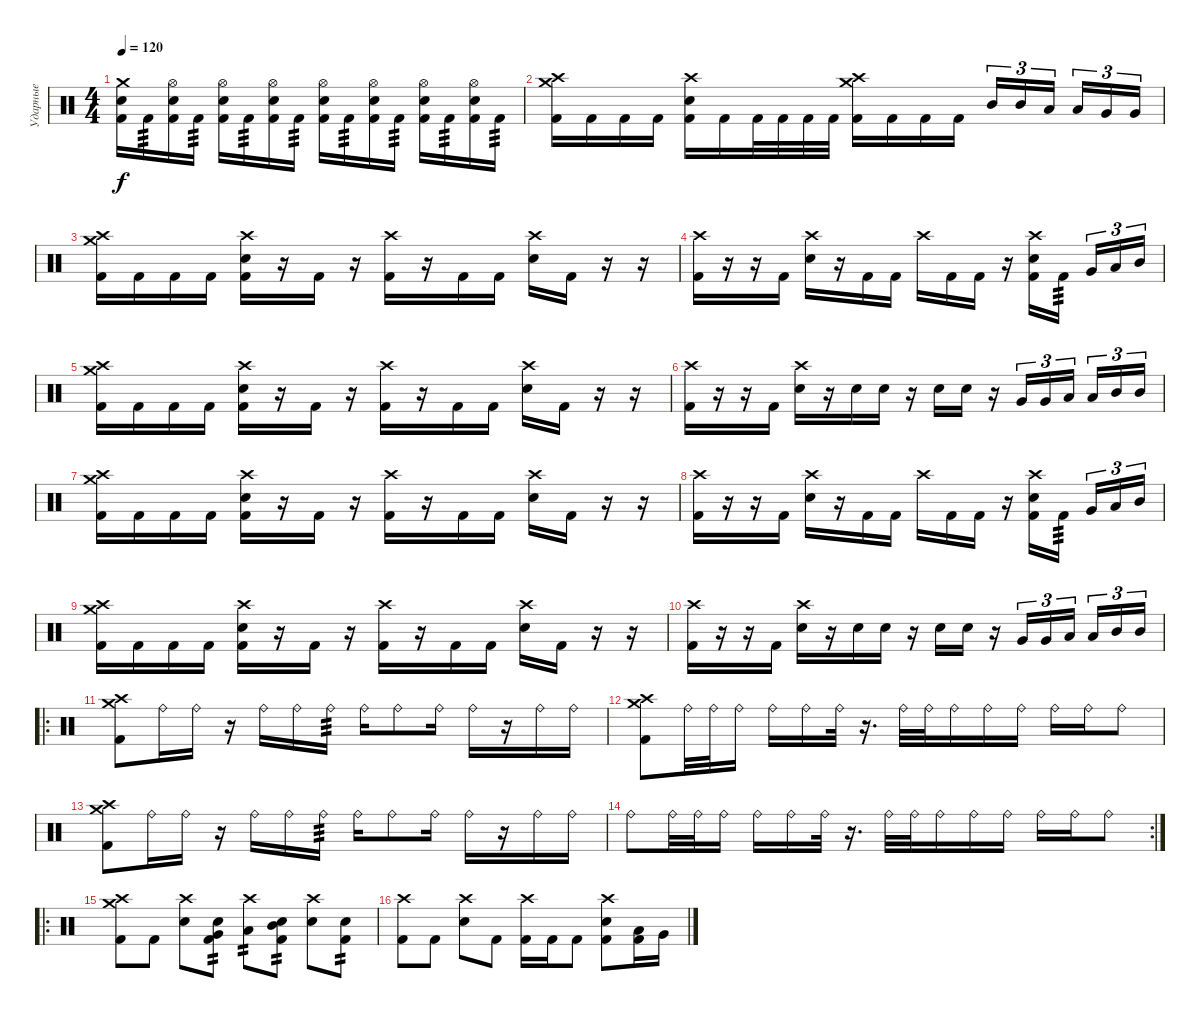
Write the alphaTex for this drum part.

\track ("Ударные" "Ударные") {instrument percussion}
\staff {score}
\articulation defaults
\ts (4 4)
\tempo 120
\clef neutral
\ks c
("Snare (hit) 2" "Crash medium (hit)" "Kick (hit) 2").16{dy f} "Kick (hit) 2".16{tp 3} ("Hi-Hat (open)" "Snare (hit) 2" "Kick (hit) 2").16 "Kick (hit) 2".16{tp 3} ("Hi-Hat (open)" "Snare (hit) 2" "Kick (hit) 2").16 "Kick (hit) 2".16{tp 3} ("Hi-Hat (open)" "Snare (hit) 2" "Kick (hit) 2").16 "Kick (hit) 2".16{tp 3} ("Hi-Hat (open)" "Snare (hit) 2" "Kick (hit) 2").16 "Kick (hit) 2".16{tp 3} ("Hi-Hat (open)" "Snare (hit) 2" "Kick (hit) 2").16 "Kick (hit) 2".16{tp 3} ("Hi-Hat (open)" "Snare (hit) 2" "Kick (hit) 2").16 "Kick (hit) 2".16{tp 3} ("Hi-Hat (open)" "Snare (hit) 2" "Kick (hit) 2").16 "Kick (hit) 2".16{tp 3} |
("Crash medium (hit)" "Crash high (hit)" "Kick (hit) 2").16 "Kick (hit) 2".16 "Kick (hit) 2".16 "Kick (hit) 2".16 ("Crash high (hit)" "Snare (hit) 2" "Kick (hit) 2").16 "Kick (hit) 2".16 "Kick (hit) 2".32 "Kick (hit) 2".32 "Kick (hit) 2".32 "Kick (hit) 2".32 ("Crash medium (hit)" "Crash high (hit)" "Kick (hit) 2").16 "Kick (hit) 2".16 "Kick (hit) 2".16 "Kick (hit) 2".16 "Mid Tom (hit)".16{tu (3 2)} "Mid Tom (hit)".16{tu (3 2)} "Low Tom (hit)".16{tu (3 2) beam splitsecondary} "Low Tom (hit)".16{tu (3 2)} "Very Low Tom (hit)".16{tu (3 2)} "Very Low Tom (hit)".16{tu (3 2)} |
("Crash medium (hit)" "Crash high (hit)" "Kick (hit) 2").16 "Kick (hit) 2".16 "Kick (hit) 2".16 "Kick (hit) 2".16 ("Snare (hit) 2" "Crash high (hit)" "Kick (hit) 2").16 r.16 "Kick (hit) 2".16 r.16 ("Crash high (hit)" "Kick (hit) 2").16 r.16 "Kick (hit) 2".16 "Kick (hit) 2".16 ("Snare (hit) 2" "Crash high (hit)").16 "Kick (hit) 2".16 r.16 r.16 |
("Crash high (hit)" "Kick (hit) 2").16 r.16 r.16 "Kick (hit) 2".16 ("Crash high (hit)" "Snare (hit) 2").16 r.16 "Kick (hit) 2".16 "Kick (hit) 2".16 "Crash high (hit)".16 "Kick (hit) 2".16 "Kick (hit) 2".16 r.16 ("Crash high (hit)" "Snare (hit) 2" "Kick (hit) 2").16 "Kick (hit) 2".16{tp 3 beam splitsecondary} "Very Low Tom (hit)".16{tu (3 2)} "Low Tom (hit)".16{tu (3 2)} "Mid Tom (hit)".16{tu (3 2)} |
("Crash medium (hit)" "Crash high (hit)" "Kick (hit) 2").16 "Kick (hit) 2".16 "Kick (hit) 2".16 "Kick (hit) 2".16 ("Snare (hit) 2" "Crash high (hit)" "Kick (hit) 2").16 r.16 "Kick (hit) 2".16 r.16 ("Crash high (hit)" "Kick (hit) 2").16 r.16 "Kick (hit) 2".16 "Kick (hit) 2".16 ("Snare (hit) 2" "Crash high (hit)").16 "Kick (hit) 2".16 r.16 r.16 |
("Crash high (hit)" "Kick (hit) 2").16 r.16 r.16 "Kick (hit) 2".16 ("Crash high (hit)" "Snare (hit) 2").16 r.16 "Electric Snare (hit)".16 "Electric Snare (hit)".16 r.16 "Electric Snare (hit)".16 "Electric Snare (hit)".16 r.16 "Very Low Tom (hit)".16{tu (3 2)} "Very Low Tom (hit)".16{tu (3 2)} "Low Tom (hit)".16{tu (3 2) beam splitsecondary} "Low Tom (hit)".16{tu (3 2)} "Mid Tom (hit)".16{tu (3 2)} "Mid Tom (hit)".16{tu (3 2)} |
("Crash medium (hit)" "Crash high (hit)" "Kick (hit) 2").16 "Kick (hit) 2".16 "Kick (hit) 2".16 "Kick (hit) 2".16 ("Snare (hit) 2" "Crash high (hit)" "Kick (hit) 2").16 r.16 "Kick (hit) 2".16 r.16 ("Crash high (hit)" "Kick (hit) 2").16 r.16 "Kick (hit) 2".16 "Kick (hit) 2".16 ("Snare (hit) 2" "Crash high (hit)").16 "Kick (hit) 2".16 r.16 r.16 |
("Crash high (hit)" "Kick (hit) 2").16 r.16 r.16 "Kick (hit) 2".16 ("Crash high (hit)" "Snare (hit) 2").16 r.16 "Kick (hit) 2".16 "Kick (hit) 2".16 "Crash high (hit)".16 "Kick (hit) 2".16 "Kick (hit) 2".16 r.16 ("Crash high (hit)" "Snare (hit) 2" "Kick (hit) 2").16 "Kick (hit) 2".16{tp 3 beam splitsecondary} "Very Low Tom (hit)".16{tu (3 2)} "Low Tom (hit)".16{tu (3 2)} "Mid Tom (hit)".16{tu (3 2)} |
("Crash medium (hit)" "Crash high (hit)" "Kick (hit) 2").16 "Kick (hit) 2".16 "Kick (hit) 2".16 "Kick (hit) 2".16 ("Snare (hit) 2" "Crash high (hit)" "Kick (hit) 2").16 r.16 "Kick (hit) 2".16 r.16 ("Crash high (hit)" "Kick (hit) 2").16 r.16 "Kick (hit) 2".16 "Kick (hit) 2".16 ("Snare (hit) 2" "Crash high (hit)").16 "Kick (hit) 2".16 r.16 r.16 |
("Crash high (hit)" "Kick (hit) 2").16 r.16 r.16 "Kick (hit) 2".16 ("Crash high (hit)" "Snare (hit) 2").16 r.16 "Electric Snare (hit)".16 "Electric Snare (hit)".16 r.16 "Electric Snare (hit)".16 "Electric Snare (hit)".16 r.16 "Very Low Tom (hit)".16{tu (3 2)} "Very Low Tom (hit)".16{tu (3 2)} "Low Tom (hit)".16{tu (3 2) beam splitsecondary} "Low Tom (hit)".16{tu (3 2)} "Mid Tom (hit)".16{tu (3 2)} "Mid Tom (hit)".16{tu (3 2)} |
\ro
("Crash medium (hit)" "Crash high (hit)" "Kick (hit) 2").8 "Ride (bell)".16 "Ride (bell)".16 r.16 "Ride (bell)".16 "Ride (bell)".16 "Ride (bell)".16{tp 3} "Ride (bell)".16 "Ride (bell)".8 "Ride (bell)".16 "Ride (bell)".16 r.16 "Ride (bell)".16 "Ride (bell)".16 |
("Crash medium (hit)" "Crash high (hit)" "Kick (hit) 2").8 "Ride (bell)".32 "Ride (bell)".32 "Ride (bell)".16 "Ride (bell)".16 "Ride (bell)".16 "Ride (bell)".32 r.16{d} "Ride (bell)".32 "Ride (bell)".32 "Ride (bell)".16 "Ride (bell)".16 "Ride (bell)".16 "Ride (bell)".16 "Ride (bell)".16 "Ride (bell)".8 |
("Crash medium (hit)" "Crash high (hit)" "Kick (hit) 2").8 "Ride (bell)".16 "Ride (bell)".16 r.16 "Ride (bell)".16 "Ride (bell)".16 "Ride (bell)".16{tp 3} "Ride (bell)".16 "Ride (bell)".8 "Ride (bell)".16 "Ride (bell)".16 r.16 "Ride (bell)".16 "Ride (bell)".16 |
\rc 2 "Ride (bell)".8 "Ride (bell)".32 "Ride (bell)".32 "Ride (bell)".16 "Ride (bell)".16 "Ride (bell)".16 "Ride (bell)".32
r.16{d} "Ride (bell)".32 "Ride (bell)".32 "Ride (bell)".16 "Ride (bell)".16 "Ride (bell)".16 "Ride (bell)".16 "Ride (bell)".16 "Ride (bell)".8 |
\ro
("Crash high (hit)" "Crash medium (hit)" "Kick (hit) 2").8 "Kick (hit) 2".8 ("Crash high (hit)" "Snare (hit) 2").8 ("Snare (hit)" "Very Low Tom (hit)" "Kick (hit) 2").8{tp 2} ("Crash high (hit)" "Low Tom (hit)").8{tp 2} ("Snare (hit)" "Mid Tom (hit)" "Kick (hit) 2").8{tp 2} ("Crash high (hit)" "Snare (hit) 2").8 ("Snare (hit)" "Kick (hit) 2").8{tp 2} |
("Crash high (hit)" "Kick (hit) 2").8 "Kick (hit) 2".8 ("Crash high (hit)" "Snare (hit) 2").8 "Kick (hit) 2".8 ("Crash high (hit)" "Kick (hit) 2").16 "Kick (hit) 2".16 "Kick (hit) 2".8 ("Crash high (hit)" "Snare (hit) 2" "Kick (hit) 2").8 ("Low Floor Tom (hit)" "Kick (hit) 2").16 "Very Low Tom (hit)".16
